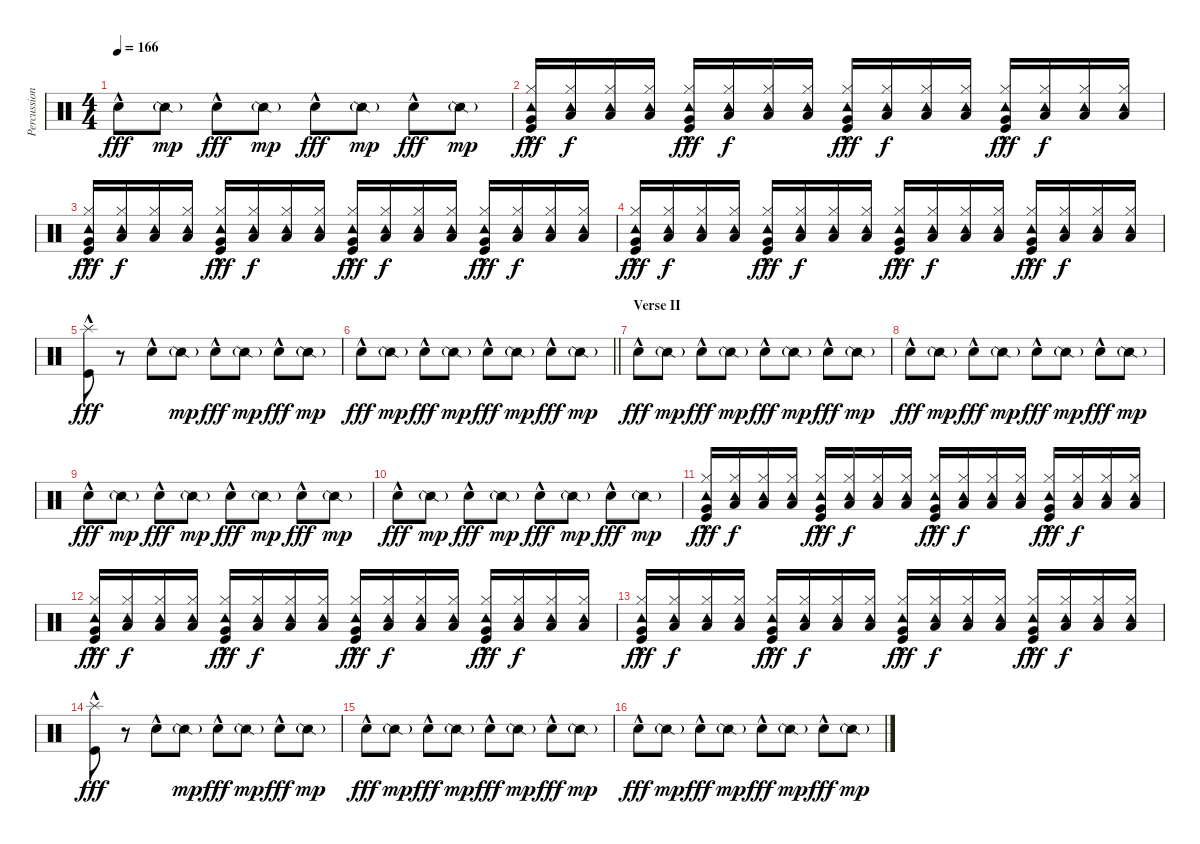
\track ("Percussion" "Percussion") {instrument percussion}
\staff {score}
\articulation defaults
\ts (4 4)
\tempo 166
\clef neutral
\ks c "Snare (hit) 2"{hac}.8{dy fff} "Snare (side stick) 2"{g}.8{dy mp} "Snare (hit) 2"{hac}.8{dy fff} "Snare (side stick) 2"{g}.8{dy mp} "Snare (hit) 2"{hac}.8{dy fff} "Snare (side stick) 2"{g}.8{dy mp} "Snare (hit) 2"{hac}.8{dy fff} "Snare (side stick) 2"{g}.8{dy mp}
|
("Tambourine (hit)" "Hi-Hat (closed)" "Very Low Tom (hit)" "Kick (hit)"{hac}).16{dy fff} ("Tambourine (hit)" "Hi-Hat (closed)" "Low Floor Tom (hit)").16{dy f} ("Tambourine (hit)" "Hi-Hat (closed)" "Low Floor Tom (hit)").16 ("Tambourine (hit)" "Hi-Hat (closed)" "Low Floor Tom (hit)").16 ("Tambourine (hit)" "Hi-Hat (closed)" "Very Low Tom (hit)" "Kick (hit)"{hac}).16{dy fff} ("Tambourine (hit)" "Hi-Hat (closed)" "Low Floor Tom (hit)").16{dy f} ("Tambourine (hit)" "Hi-Hat (closed)" "Low Floor Tom (hit)").16 ("Tambourine (hit)" "Hi-Hat (closed)" "Low Floor Tom (hit)").16 ("Tambourine (hit)" "Hi-Hat (closed)" "Very Low Tom (hit)" "Kick (hit)"{hac}).16{dy fff} ("Tambourine (hit)" "Hi-Hat (closed)" "Low Floor Tom (hit)").16{dy f} ("Tambourine (hit)" "Hi-Hat (closed)" "Low Floor Tom (hit)").16 ("Tambourine (hit)" "Hi-Hat (closed)" "Low Floor Tom (hit)").16 ("Tambourine (hit)" "Hi-Hat (closed)" "Very Low Tom (hit)" "Kick (hit)"{hac}).16{dy fff} ("Tambourine (hit)" "Hi-Hat (closed)" "Low Floor Tom (hit)").16{dy f} ("Tambourine (hit)" "Hi-Hat (closed)" "Low Floor Tom (hit)").16 ("Tambourine (hit)" "Hi-Hat (closed)" "Low Floor Tom (hit)").16 |
("Tambourine (hit)" "Hi-Hat (closed)" "Very Low Tom (hit)" "Kick (hit)"{hac}).16{dy fff} ("Tambourine (hit)" "Hi-Hat (closed)" "Low Floor Tom (hit)").16{dy f} ("Tambourine (hit)" "Hi-Hat (closed)" "Low Floor Tom (hit)").16 ("Tambourine (hit)" "Hi-Hat (closed)" "Low Floor Tom (hit)").16 ("Tambourine (hit)" "Hi-Hat (closed)" "Very Low Tom (hit)" "Kick (hit)"{hac}).16{dy fff} ("Tambourine (hit)" "Hi-Hat (closed)" "Low Floor Tom (hit)").16{dy f} ("Tambourine (hit)" "Hi-Hat (closed)" "Low Floor Tom (hit)").16 ("Tambourine (hit)" "Hi-Hat (closed)" "Low Floor Tom (hit)").16 ("Tambourine (hit)" "Hi-Hat (closed)" "Very Low Tom (hit)" "Kick (hit)"{hac}).16{dy fff} ("Tambourine (hit)" "Hi-Hat (closed)" "Low Floor Tom (hit)").16{dy f} ("Tambourine (hit)" "Hi-Hat (closed)" "Low Floor Tom (hit)").16 ("Tambourine (hit)" "Hi-Hat (closed)" "Low Floor Tom (hit)").16 ("Tambourine (hit)" "Hi-Hat (closed)" "Very Low Tom (hit)" "Kick (hit)"{hac}).16{dy fff} ("Tambourine (hit)" "Hi-Hat (closed)" "Low Floor Tom (hit)").16{dy f} ("Tambourine (hit)" "Hi-Hat (closed)" "Low Floor Tom (hit)").16 ("Tambourine (hit)" "Hi-Hat (closed)" "Low Floor Tom (hit)").16 |
("Tambourine (hit)" "Hi-Hat (closed)" "Very Low Tom (hit)" "Kick (hit)"{hac}).16{dy fff} ("Tambourine (hit)" "Hi-Hat (closed)" "Low Floor Tom (hit)").16{dy f} ("Tambourine (hit)" "Hi-Hat (closed)" "Low Floor Tom (hit)").16 ("Tambourine (hit)" "Hi-Hat (closed)" "Low Floor Tom (hit)").16 ("Tambourine (hit)" "Hi-Hat (closed)" "Very Low Tom (hit)" "Kick (hit)"{hac}).16{dy fff} ("Tambourine (hit)" "Hi-Hat (closed)" "Low Floor Tom (hit)").16{dy f} ("Tambourine (hit)" "Hi-Hat (closed)" "Low Floor Tom (hit)").16 ("Tambourine (hit)" "Hi-Hat (closed)" "Low Floor Tom (hit)").16 ("Tambourine (hit)" "Hi-Hat (closed)" "Very Low Tom (hit)" "Kick (hit)"{hac}).16{dy fff} ("Tambourine (hit)" "Hi-Hat (closed)" "Low Floor Tom (hit)").16{dy f} ("Tambourine (hit)" "Hi-Hat (closed)" "Low Floor Tom (hit)").16 ("Tambourine (hit)" "Hi-Hat (closed)" "Low Floor Tom (hit)").16 ("Tambourine (hit)" "Hi-Hat (closed)" "Very Low Tom (hit)" "Kick (hit)"{hac}).16{dy fff} ("Tambourine (hit)" "Hi-Hat (closed)" "Low Floor Tom (hit)").16{dy f} ("Tambourine (hit)" "Hi-Hat (closed)" "Low Floor Tom (hit)").16 ("Tambourine (hit)" "Hi-Hat (closed)" "Low Floor Tom (hit)").16 |
("Splash (hit)" "Kick (hit)"{hac}).8{dy fff} r.8 "Snare (hit) 2"{hac}.8 "Snare (side stick) 2"{g}.8{dy mp} "Snare (hit) 2"{hac}.8{dy fff} "Snare (side stick) 2"{g}.8{dy mp} "Snare (hit) 2"{hac}.8{dy fff} "Snare (side stick) 2"{g}.8{dy mp} |
\barLineRight lightlight "Snare (hit) 2"{hac}.8{dy fff} "Snare (side stick) 2"{g}.8{dy mp} "Snare (hit) 2"{hac}.8{dy fff} "Snare (side stick) 2"{g}.8{dy mp} "Snare (hit) 2"{hac}.8{dy fff} "Snare (side stick) 2"{g}.8{dy mp} "Snare (hit) 2"{hac}.8{dy fff} "Snare (side stick) 2"{g}.8{dy mp}
|
\section ("" "Verse II")
"Snare (hit) 2"{hac}.8{dy fff} "Snare (side stick) 2"{g}.8{dy mp} "Snare (hit) 2"{hac}.8{dy fff} "Snare (side stick) 2"{g}.8{dy mp} "Snare (hit) 2"{hac}.8{dy fff} "Snare (side stick) 2"{g}.8{dy mp} "Snare (hit) 2"{hac}.8{dy fff} "Snare (side stick) 2"{g}.8{dy mp} |
"Snare (hit) 2"{hac}.8{dy fff} "Snare (side stick) 2"{g}.8{dy mp} "Snare (hit) 2"{hac}.8{dy fff} "Snare (side stick) 2"{g}.8{dy mp} "Snare (hit) 2"{hac}.8{dy fff} "Snare (side stick) 2"{g}.8{dy mp} "Snare (hit) 2"{hac}.8{dy fff} "Snare (side stick) 2"{g}.8{dy mp} |
"Snare (hit) 2"{hac}.8{dy fff} "Snare (side stick) 2"{g}.8{dy mp} "Snare (hit) 2"{hac}.8{dy fff} "Snare (side stick) 2"{g}.8{dy mp} "Snare (hit) 2"{hac}.8{dy fff} "Snare (side stick) 2"{g}.8{dy mp} "Snare (hit) 2"{hac}.8{dy fff} "Snare (side stick) 2"{g}.8{dy mp} |
"Snare (hit) 2"{hac}.8{dy fff} "Snare (side stick) 2"{g}.8{dy mp} "Snare (hit) 2"{hac}.8{dy fff} "Snare (side stick) 2"{g}.8{dy mp} "Snare (hit) 2"{hac}.8{dy fff} "Snare (side stick) 2"{g}.8{dy mp} "Snare (hit) 2"{hac}.8{dy fff} "Snare (side stick) 2"{g}.8{dy mp} |
("Tambourine (hit)" "Hi-Hat (closed)" "Very Low Tom (hit)" "Kick (hit)"{hac}).16{dy fff} ("Tambourine (hit)" "Hi-Hat (closed)" "Low Floor Tom (hit)").16{dy f} ("Tambourine (hit)" "Hi-Hat (closed)" "Low Floor Tom (hit)").16 ("Tambourine (hit)" "Hi-Hat (closed)" "Low Floor Tom (hit)").16 ("Tambourine (hit)" "Hi-Hat (closed)" "Very Low Tom (hit)" "Kick (hit)"{hac}).16{dy fff} ("Tambourine (hit)" "Hi-Hat (closed)" "Low Floor Tom (hit)").16{dy f} ("Tambourine (hit)" "Hi-Hat (closed)" "Low Floor Tom (hit)").16 ("Tambourine (hit)" "Hi-Hat (closed)" "Low Floor Tom (hit)").16 ("Tambourine (hit)" "Hi-Hat (closed)" "Very Low Tom (hit)" "Kick (hit)"{hac}).16{dy fff} ("Tambourine (hit)" "Hi-Hat (closed)" "Low Floor Tom (hit)").16{dy f} ("Tambourine (hit)" "Hi-Hat (closed)" "Low Floor Tom (hit)").16 ("Tambourine (hit)" "Hi-Hat (closed)" "Low Floor Tom (hit)").16 ("Tambourine (hit)" "Hi-Hat (closed)" "Very Low Tom (hit)" "Kick (hit)"{hac}).16{dy fff} ("Tambourine (hit)" "Hi-Hat (closed)" "Low Floor Tom (hit)").16{dy f} ("Tambourine (hit)" "Hi-Hat (closed)" "Low Floor Tom (hit)").16 ("Tambourine (hit)" "Hi-Hat (closed)" "Low Floor Tom (hit)").16 |
("Tambourine (hit)" "Hi-Hat (closed)" "Very Low Tom (hit)" "Kick (hit)"{hac}).16{dy fff} ("Tambourine (hit)" "Hi-Hat (closed)" "Low Floor Tom (hit)").16{dy f} ("Tambourine (hit)" "Hi-Hat (closed)" "Low Floor Tom (hit)").16 ("Tambourine (hit)" "Hi-Hat (closed)" "Low Floor Tom (hit)").16 ("Tambourine (hit)" "Hi-Hat (closed)" "Very Low Tom (hit)" "Kick (hit)"{hac}).16{dy fff} ("Tambourine (hit)" "Hi-Hat (closed)" "Low Floor Tom (hit)").16{dy f} ("Tambourine (hit)" "Hi-Hat (closed)" "Low Floor Tom (hit)").16 ("Tambourine (hit)" "Hi-Hat (closed)" "Low Floor Tom (hit)").16 ("Tambourine (hit)" "Hi-Hat (closed)" "Very Low Tom (hit)" "Kick (hit)"{hac}).16{dy fff} ("Tambourine (hit)" "Hi-Hat (closed)" "Low Floor Tom (hit)").16{dy f} ("Tambourine (hit)" "Hi-Hat (closed)" "Low Floor Tom (hit)").16 ("Tambourine (hit)" "Hi-Hat (closed)" "Low Floor Tom (hit)").16 ("Tambourine (hit)" "Hi-Hat (closed)" "Very Low Tom (hit)" "Kick (hit)"{hac}).16{dy fff} ("Tambourine (hit)" "Hi-Hat (closed)" "Low Floor Tom (hit)").16{dy f} ("Tambourine (hit)" "Hi-Hat (closed)" "Low Floor Tom (hit)").16 ("Tambourine (hit)" "Hi-Hat (closed)" "Low Floor Tom (hit)").16 |
("Tambourine (hit)" "Hi-Hat (closed)" "Very Low Tom (hit)" "Kick (hit)"{hac}).16{dy fff} ("Tambourine (hit)" "Hi-Hat (closed)" "Low Floor Tom (hit)").16{dy f} ("Tambourine (hit)" "Hi-Hat (closed)" "Low Floor Tom (hit)").16 ("Tambourine (hit)" "Hi-Hat (closed)" "Low Floor Tom (hit)").16 ("Tambourine (hit)" "Hi-Hat (closed)" "Very Low Tom (hit)" "Kick (hit)"{hac}).16{dy fff} ("Tambourine (hit)" "Hi-Hat (closed)" "Low Floor Tom (hit)").16{dy f} ("Tambourine (hit)" "Hi-Hat (closed)" "Low Floor Tom (hit)").16 ("Tambourine (hit)" "Hi-Hat (closed)" "Low Floor Tom (hit)").16 ("Tambourine (hit)" "Hi-Hat (closed)" "Very Low Tom (hit)" "Kick (hit)"{hac}).16{dy fff} ("Tambourine (hit)" "Hi-Hat (closed)" "Low Floor Tom (hit)").16{dy f} ("Tambourine (hit)" "Hi-Hat (closed)" "Low Floor Tom (hit)").16 ("Tambourine (hit)" "Hi-Hat (closed)" "Low Floor Tom (hit)").16 ("Tambourine (hit)" "Hi-Hat (closed)" "Very Low Tom (hit)" "Kick (hit)"{hac}).16{dy fff} ("Tambourine (hit)" "Hi-Hat (closed)" "Low Floor Tom (hit)").16{dy f} ("Tambourine (hit)" "Hi-Hat (closed)" "Low Floor Tom (hit)").16 ("Tambourine (hit)" "Hi-Hat (closed)" "Low Floor Tom (hit)").16 |
("Splash (hit)" "Kick (hit)"{hac}).8{dy fff} r.8 "Snare (hit) 2"{hac}.8 "Snare (side stick) 2"{g}.8{dy mp} "Snare (hit) 2"{hac}.8{dy fff} "Snare (side stick) 2"{g}.8{dy mp} "Snare (hit) 2"{hac}.8{dy fff} "Snare (side stick) 2"{g}.8{dy mp} |
"Snare (hit) 2"{hac}.8{dy fff} "Snare (side stick) 2"{g}.8{dy mp} "Snare (hit) 2"{hac}.8{dy fff} "Snare (side stick) 2"{g}.8{dy mp} "Snare (hit) 2"{hac}.8{dy fff} "Snare (side stick) 2"{g}.8{dy mp} "Snare (hit) 2"{hac}.8{dy fff} "Snare (side stick) 2"{g}.8{dy mp} |
"Snare (hit) 2"{hac}.8{dy fff} "Snare (side stick) 2"{g}.8{dy mp} "Snare (hit) 2"{hac}.8{dy fff} "Snare (side stick) 2"{g}.8{dy mp} "Snare (hit) 2"{hac}.8{dy fff} "Snare (side stick) 2"{g}.8{dy mp} "Snare (hit) 2"{hac}.8{dy fff} "Snare (side stick) 2"{g}.8{dy mp}
